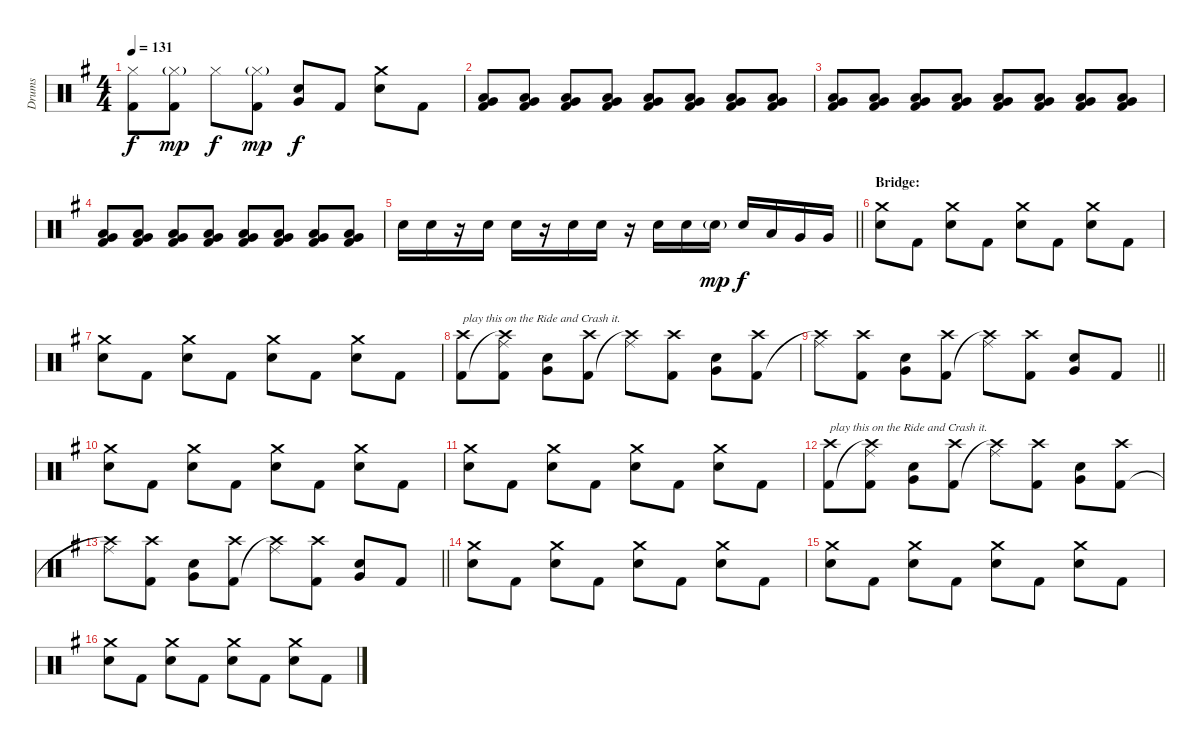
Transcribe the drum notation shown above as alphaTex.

\track ("Drums" "Drums") {instrument percussion}
\staff {score}
\articulation defaults
\ts (4 4)
\tempo 131
\clef neutral
\ks g
("Hi-Hat (closed)" "Kick (hit) 2").8{dy f} ("Hi-Hat (closed)"{g} "Kick (hit) 2").8{dy mp} "Hi-Hat (closed)".8{dy f} ("Hi-Hat (closed)"{g} "Kick (hit) 2").8{dy mp} ("Very Low Tom (hit)" "Electric Snare (hit)").8{dy f} "Kick (hit) 2".8 ("Crash medium (hit)" "Electric Snare (hit)").8 "Kick (hit) 2".8 |
("Low Tom (hit)" "Very Low Tom (hit)" "Kick (hit) 2").8{volume 6} ("Low Tom (hit)" "Very Low Tom (hit)" "Kick (hit) 2").8{volume 14} ("Low Tom (hit)" "Very Low Tom (hit)" "Kick (hit) 2").8 ("Low Tom (hit)" "Very Low Tom (hit)" "Kick (hit) 2").8 ("Low Tom (hit)" "Very Low Tom (hit)" "Kick (hit) 2").8 ("Low Tom (hit)" "Very Low Tom (hit)" "Kick (hit) 2").8 ("Low Tom (hit)" "Very Low Tom (hit)" "Kick (hit) 2").8 ("Low Tom (hit)" "Very Low Tom (hit)" "Kick (hit) 2").8 |
("Low Tom (hit)" "Very Low Tom (hit)" "Kick (hit) 2").8 ("Low Tom (hit)" "Very Low Tom (hit)" "Kick (hit) 2").8 ("Low Tom (hit)" "Very Low Tom (hit)" "Kick (hit) 2").8 ("Low Tom (hit)" "Very Low Tom (hit)" "Kick (hit) 2").8 ("Low Tom (hit)" "Very Low Tom (hit)" "Kick (hit) 2").8 ("Low Tom (hit)" "Very Low Tom (hit)" "Kick (hit) 2").8 ("Low Tom (hit)" "Very Low Tom (hit)" "Kick (hit) 2").8 ("Low Tom (hit)" "Very Low Tom (hit)" "Kick (hit) 2").8 |
("Low Tom (hit)" "Very Low Tom (hit)" "Kick (hit) 2").8 ("Low Tom (hit)" "Very Low Tom (hit)" "Kick (hit) 2").8 ("Low Tom (hit)" "Very Low Tom (hit)" "Kick (hit) 2").8 ("Low Tom (hit)" "Very Low Tom (hit)" "Kick (hit) 2").8 ("Low Tom (hit)" "Very Low Tom (hit)" "Kick (hit) 2").8 ("Low Tom (hit)" "Very Low Tom (hit)" "Kick (hit) 2").8 ("Low Tom (hit)" "Very Low Tom (hit)" "Kick (hit) 2").8 ("Low Tom (hit)" "Very Low Tom (hit)" "Kick (hit) 2").8 |
\barLineRight lightlight "Electric Snare (hit)".16 "Electric Snare (hit)".16
r.16 "Electric Snare (hit)".16 "Electric Snare (hit)".16 r.16 "Electric Snare (hit)".16 "Electric Snare (hit)".16 r.16 "Electric Snare (hit)".16 "Electric Snare (hit)".16 "Electric Snare (hit)"{g}.16{dy mp} "Electric Snare (hit)".16{dy f} "Low Tom (hit)".16 "Very Low Tom (hit)".16 "Very Low Tom (hit)".16 |
\section ("" "Bridge:")
("Crash medium (hit)" "Electric Snare (hit)").8 "Kick (hit) 2".8 ("Crash medium (hit)" "Electric Snare (hit)").8 "Kick (hit) 2".8 ("Crash medium (hit)" "Electric Snare (hit)").8 "Kick (hit) 2".8 ("Crash medium (hit)" "Electric Snare (hit)").8 "Kick (hit) 2".8 |
("Crash medium (hit)" "Electric Snare (hit)").8 "Kick (hit) 2".8 ("Crash medium (hit)" "Electric Snare (hit)").8 "Kick (hit) 2".8 ("Crash medium (hit)" "Electric Snare (hit)").8 "Kick (hit) 2".8 ("Crash medium (hit)" "Electric Snare (hit)").8 "Kick (hit) 2".8 |
("Crash high (hit)" "Kick (hit) 2").8{txt "play this on the Ride and Crash it."} ("Ride (middle)" "Crash high (hit)"{t} "Kick (hit) 2").8 ("Very Low Tom (hit)" "Electric Snare (hit)").8 ("Crash high (hit)" "Kick (hit) 2").8 ("Ride (middle)" "Crash high (hit)"{t}).8 ("Crash high (hit)" "Kick (hit) 2").8 ("Very Low Tom (hit)" "Electric Snare (hit)").8 ("Crash high (hit)" "Kick (hit) 2").8 |
\barLineRight lightlight
("Ride (middle)" "Crash high (hit)"{t}).8 ("Crash high (hit)" "Kick (hit) 2").8 ("Very Low Tom (hit)" "Electric Snare (hit)").8 ("Crash high (hit)" "Kick (hit) 2").8 ("Ride (middle)" "Crash high (hit)"{t}).8 ("Crash high (hit)" "Kick (hit) 2").8 ("Very Low Tom (hit)" "Electric Snare (hit)").8 "Kick (hit) 2".8 |
("Crash medium (hit)" "Electric Snare (hit)").8 "Kick (hit) 2".8 ("Crash medium (hit)" "Electric Snare (hit)").8 "Kick (hit) 2".8 ("Crash medium (hit)" "Electric Snare (hit)").8 "Kick (hit) 2".8 ("Crash medium (hit)" "Electric Snare (hit)").8 "Kick (hit) 2".8 |
("Crash medium (hit)" "Electric Snare (hit)").8 "Kick (hit) 2".8 ("Crash medium (hit)" "Electric Snare (hit)").8 "Kick (hit) 2".8 ("Crash medium (hit)" "Electric Snare (hit)").8 "Kick (hit) 2".8 ("Crash medium (hit)" "Electric Snare (hit)").8 "Kick (hit) 2".8 |
("Crash high (hit)" "Kick (hit) 2").8{txt "play this on the Ride and Crash it."} ("Ride (middle)" "Crash high (hit)"{t} "Kick (hit) 2").8 ("Very Low Tom (hit)" "Electric Snare (hit)").8 ("Crash high (hit)" "Kick (hit) 2").8 ("Ride (middle)" "Crash high (hit)"{t}).8 ("Crash high (hit)" "Kick (hit) 2").8 ("Very Low Tom (hit)" "Electric Snare (hit)").8 ("Crash high (hit)" "Kick (hit) 2").8 |
\barLineRight lightlight
("Ride (middle)" "Crash high (hit)"{t}).8 ("Crash high (hit)" "Kick (hit) 2").8 ("Very Low Tom (hit)" "Electric Snare (hit)").8 ("Crash high (hit)" "Kick (hit) 2").8 ("Ride (middle)" "Crash high (hit)"{t}).8 ("Crash high (hit)" "Kick (hit) 2").8 ("Very Low Tom (hit)" "Electric Snare (hit)").8 "Kick (hit) 2".8 |
("Crash medium (hit)" "Electric Snare (hit)").8 "Kick (hit) 2".8 ("Crash medium (hit)" "Electric Snare (hit)").8 "Kick (hit) 2".8 ("Crash medium (hit)" "Electric Snare (hit)").8 "Kick (hit) 2".8 ("Crash medium (hit)" "Electric Snare (hit)").8 "Kick (hit) 2".8 |
("Crash medium (hit)" "Electric Snare (hit)").8 "Kick (hit) 2".8 ("Crash medium (hit)" "Electric Snare (hit)").8 "Kick (hit) 2".8 ("Crash medium (hit)" "Electric Snare (hit)").8 "Kick (hit) 2".8 ("Crash medium (hit)" "Electric Snare (hit)").8 "Kick (hit) 2".8 |
("Crash medium (hit)" "Electric Snare (hit)").8 "Kick (hit) 2".8 ("Crash medium (hit)" "Electric Snare (hit)").8 "Kick (hit) 2".8 ("Crash medium (hit)" "Electric Snare (hit)").8 "Kick (hit) 2".8 ("Crash medium (hit)" "Electric Snare (hit)").8 "Kick (hit) 2".8
